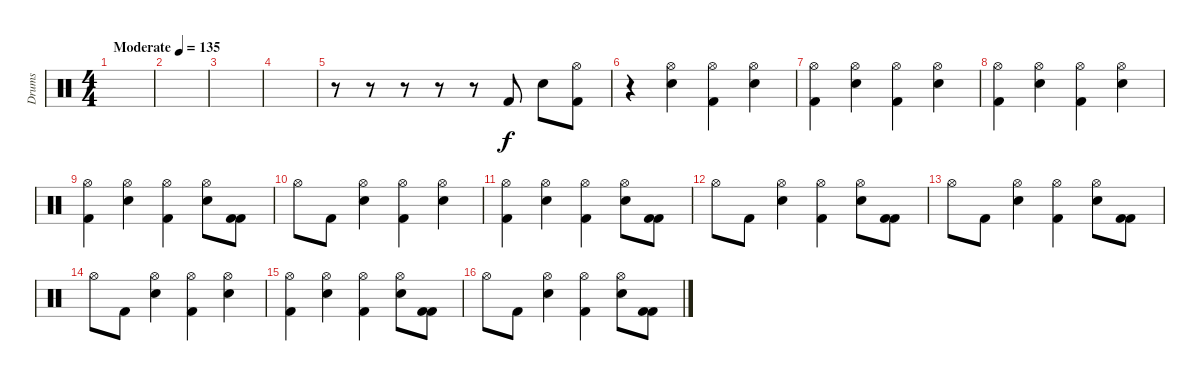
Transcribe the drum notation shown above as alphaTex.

\track ("Drums" "Drums") {instrument percussion}
\staff {score}
\articulation defaults
\ts (4 4)
\tempo (135 "Moderate")
\clef neutral
\ks c
|
|
|
|
r.8 r.8 r.8 r.8 r.8 "Kick (hit) 2".8 "Electric Snare (hit)".8 ("Hi-Hat (open)" "Kick (hit) 2").8 |
r.4 ("Hi-Hat (open)" "Electric Snare (hit)").4 ("Hi-Hat (open)" "Kick (hit) 2").4 ("Hi-Hat (open)" "Electric Snare (hit)").4 |
("Hi-Hat (open)" "Kick (hit) 2").4 ("Hi-Hat (open)" "Electric Snare (hit)").4 ("Hi-Hat (open)" "Kick (hit) 2").4 ("Hi-Hat (open)" "Electric Snare (hit)").4 |
("Hi-Hat (open)" "Kick (hit) 2").4 ("Hi-Hat (open)" "Electric Snare (hit)").4 ("Hi-Hat (open)" "Kick (hit) 2").4 ("Hi-Hat (open)" "Electric Snare (hit)").4 |
("Hi-Hat (open)" "Kick (hit) 2").4 ("Hi-Hat (open)" "Electric Snare (hit)").4 ("Hi-Hat (open)" "Kick (hit) 2").4 ("Hi-Hat (open)" "Electric Snare (hit)").8 ("Kick (hit) 2" "Kick (hit) 2").8 |
"Hi-Hat (open)".8 "Kick (hit) 2".8 ("Hi-Hat (open)" "Electric Snare (hit)").4 ("Hi-Hat (open)" "Kick (hit) 2").4 ("Hi-Hat (open)" "Electric Snare (hit)").4 |
("Hi-Hat (open)" "Kick (hit) 2").4 ("Hi-Hat (open)" "Electric Snare (hit)").4 ("Hi-Hat (open)" "Kick (hit) 2").4 ("Hi-Hat (open)" "Electric Snare (hit)").8 ("Kick (hit) 2" "Kick (hit) 2").8 |
"Hi-Hat (open)".8 "Kick (hit) 2".8 ("Hi-Hat (open)" "Electric Snare (hit)").4 ("Hi-Hat (open)" "Kick (hit) 2").4 ("Hi-Hat (open)" "Electric Snare (hit)").8 ("Kick (hit) 2" "Kick (hit) 2").8 |
"Hi-Hat (open)".8 "Kick (hit) 2".8 ("Hi-Hat (open)" "Electric Snare (hit)").4 ("Hi-Hat (open)" "Kick (hit) 2").4 ("Hi-Hat (open)" "Electric Snare (hit)").8 ("Kick (hit) 2" "Kick (hit) 2").8 |
"Hi-Hat (open)".8 "Kick (hit) 2".8 ("Hi-Hat (open)" "Electric Snare (hit)").4 ("Hi-Hat (open)" "Kick (hit) 2").4 ("Hi-Hat (open)" "Electric Snare (hit)").4 |
("Hi-Hat (open)" "Kick (hit) 2").4 ("Hi-Hat (open)" "Electric Snare (hit)").4 ("Hi-Hat (open)" "Kick (hit) 2").4 ("Hi-Hat (open)" "Electric Snare (hit)").8 ("Kick (hit) 2" "Kick (hit) 2").8 |
"Hi-Hat (open)".8 "Kick (hit) 2".8 ("Hi-Hat (open)" "Electric Snare (hit)").4 ("Hi-Hat (open)" "Kick (hit) 2").4 ("Hi-Hat (open)" "Electric Snare (hit)").8 ("Kick (hit) 2" "Kick (hit) 2").8
